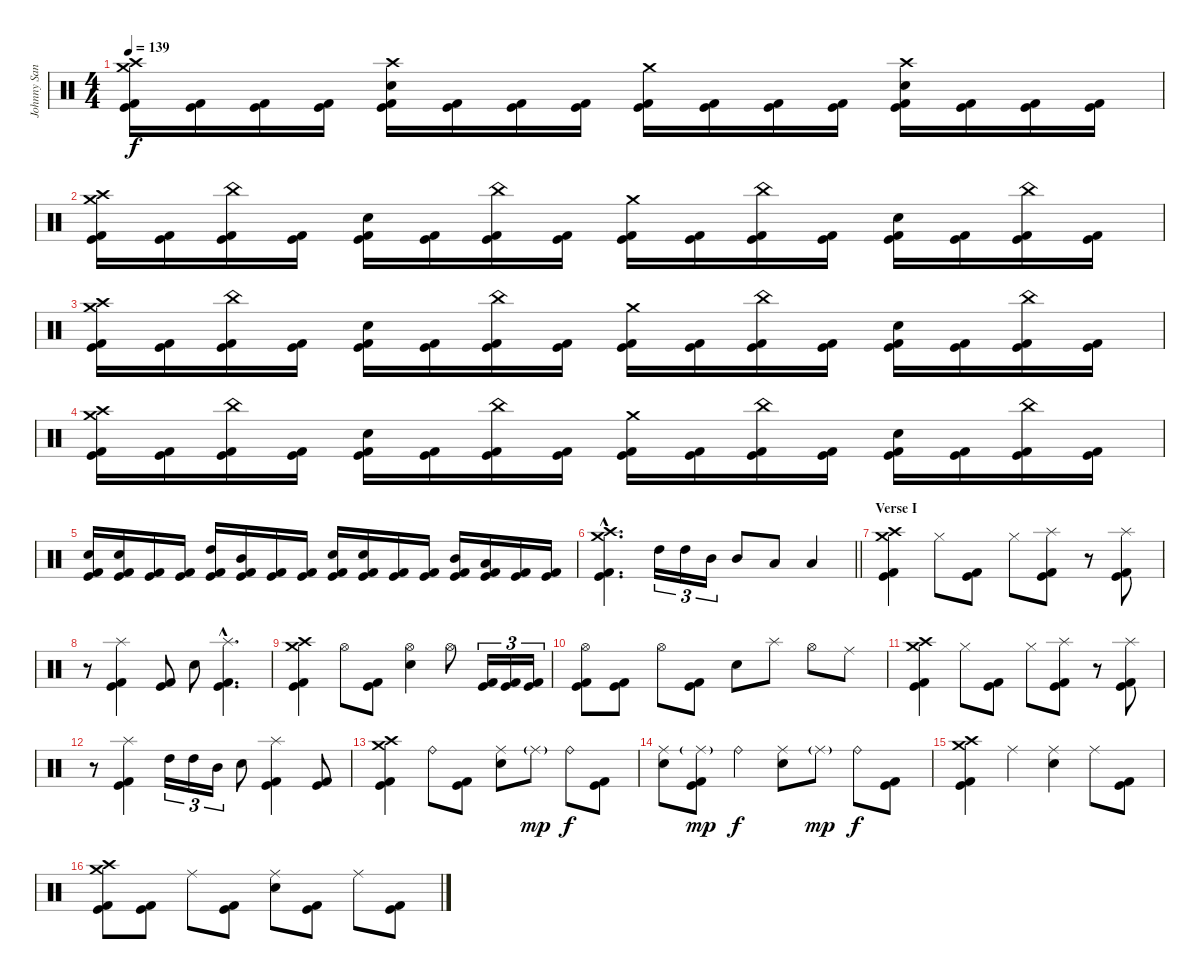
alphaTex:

\track ("Johnny Sandin" "Johnny San") {instrument percussion}
\staff {score}
\articulation defaults
\ts (4 4)
\tempo 139
\clef neutral
\ks c
("Crash medium (hit)" "Crash high (hit)" "Kick (hit) 2" "Kick (hit)").16{dy f} ("Kick (hit) 2" "Kick (hit)").16 ("Kick (hit) 2" "Kick (hit)").16 ("Kick (hit) 2" "Kick (hit)").16 ("Crash high (hit)" "Snare (hit) 2" "Kick (hit) 2" "Kick (hit)").16 ("Kick (hit) 2" "Kick (hit)").16 ("Kick (hit) 2" "Kick (hit)").16 ("Kick (hit) 2" "Kick (hit)").16 ("Crash medium (hit)" "Kick (hit) 2" "Kick (hit)").16 ("Kick (hit) 2" "Kick (hit)").16 ("Kick (hit) 2" "Kick (hit)").16 ("Kick (hit) 2" "Kick (hit)").16 ("Crash high (hit)" "Snare (hit) 2" "Kick (hit) 2" "Kick (hit)").16 ("Kick (hit) 2" "Kick (hit)").16 ("Kick (hit) 2" "Kick (hit)").16 ("Kick (hit) 2" "Kick (hit)").16 |
("Crash medium (hit)" "Crash high (hit)" "Kick (hit) 2" "Kick (hit)").16 ("Kick (hit) 2" "Kick (hit)").16 ("China (hit)" "Kick (hit) 2" "Kick (hit)").16 ("Kick (hit) 2" "Kick (hit)").16 ("Snare (hit) 2" "Kick (hit) 2" "Kick (hit)").16 ("Kick (hit) 2" "Kick (hit)").16 ("China (hit)" "Kick (hit) 2" "Kick (hit)").16 ("Kick (hit) 2" "Kick (hit)").16 ("Crash medium (hit)" "Kick (hit) 2" "Kick (hit)").16 ("Kick (hit) 2" "Kick (hit)").16 ("China (hit)" "Kick (hit) 2" "Kick (hit)").16 ("Kick (hit) 2" "Kick (hit)").16 ("Snare (hit) 2" "Kick (hit) 2" "Kick (hit)").16 ("Kick (hit) 2" "Kick (hit)").16 ("China (hit)" "Kick (hit) 2" "Kick (hit)").16 ("Kick (hit) 2" "Kick (hit)").16 |
("Crash medium (hit)" "Crash high (hit)" "Kick (hit) 2" "Kick (hit)").16 ("Kick (hit) 2" "Kick (hit)").16 ("China (hit)" "Kick (hit) 2" "Kick (hit)").16 ("Kick (hit) 2" "Kick (hit)").16 ("Snare (hit) 2" "Kick (hit) 2" "Kick (hit)").16 ("Kick (hit) 2" "Kick (hit)").16 ("China (hit)" "Kick (hit) 2" "Kick (hit)").16 ("Kick (hit) 2" "Kick (hit)").16 ("Crash medium (hit)" "Kick (hit) 2" "Kick (hit)").16 ("Kick (hit) 2" "Kick (hit)").16 ("China (hit)" "Kick (hit) 2" "Kick (hit)").16 ("Kick (hit) 2" "Kick (hit)").16 ("Snare (hit) 2" "Kick (hit) 2" "Kick (hit)").16 ("Kick (hit) 2" "Kick (hit)").16 ("China (hit)" "Kick (hit) 2" "Kick (hit)").16 ("Kick (hit) 2" "Kick (hit)").16 |
("Crash medium (hit)" "Crash high (hit)" "Kick (hit) 2" "Kick (hit)").16 ("Kick (hit) 2" "Kick (hit)").16 ("China (hit)" "Kick (hit) 2" "Kick (hit)").16 ("Kick (hit) 2" "Kick (hit)").16 ("Snare (hit) 2" "Kick (hit) 2" "Kick (hit)").16 ("Kick (hit) 2" "Kick (hit)").16 ("China (hit)" "Kick (hit) 2" "Kick (hit)").16 ("Kick (hit) 2" "Kick (hit)").16 ("Crash medium (hit)" "Kick (hit) 2" "Kick (hit)").16 ("Kick (hit) 2" "Kick (hit)").16 ("China (hit)" "Kick (hit) 2" "Kick (hit)").16 ("Kick (hit) 2" "Kick (hit)").16 ("Snare (hit) 2" "Kick (hit) 2" "Kick (hit)").16 ("Kick (hit) 2" "Kick (hit)").16 ("China (hit)" "Kick (hit) 2" "Kick (hit)").16 ("Kick (hit) 2" "Kick (hit)").16 |
("Snare (hit) 2" "Kick (hit) 2" "Kick (hit)").16 ("Snare (hit) 2" "Kick (hit) 2" "Kick (hit)").16 ("Kick (hit) 2" "Kick (hit)").16 ("Kick (hit) 2" "Kick (hit)").16 ("High Tom (hit)" "Kick (hit) 2" "Kick (hit)").16 ("Mid Tom (hit)" "Kick (hit) 2" "Kick (hit)").16 ("Kick (hit) 2" "Kick (hit)").16 ("Kick (hit) 2" "Kick (hit)").16 ("Snare (hit) 2" "Kick (hit) 2" "Kick (hit)").16 ("Snare (hit) 2" "Kick (hit) 2" "Kick (hit)").16 ("Kick (hit) 2" "Kick (hit)").16 ("Kick (hit) 2" "Kick (hit)").16 ("Mid Tom (hit)" "Kick (hit) 2" "Kick (hit)").16 ("Low Tom (hit)" "Kick (hit) 2" "Kick (hit)").16 ("Kick (hit) 2" "Kick (hit)").16 ("Kick (hit) 2" "Kick (hit)").16 |
\barLineRight lightlight
("Crash medium (hit)"{hac} "Crash high (hit)"{hac} "Kick (hit) 2"{hac} "Kick (hit)"{hac}).4{d} "High Tom (hit)".16{tu (3 2)} "High Tom (hit)".16{tu (3 2)} "Mid Tom (hit)".16{tu (3 2)} "Mid Tom (hit)".8 "Low Tom (hit)".8 "Low Tom (hit)".4 |
\section ("" "Verse I")
("Crash medium (hit)" "Crash high (hit)" "Kick (hit) 2" "Kick (hit)").4 "Hi-Hat (closed)".8 ("Kick (hit) 2" "Kick (hit)").8 "Hi-Hat (closed)".8 ("Splash (hit)" "Kick (hit) 2" "Kick (hit)").8 r.8 ("Splash (hit)" "Kick (hit) 2" "Kick (hit)").8 |
r.8 ("Splash (hit)" "Kick (hit) 2" "Kick (hit)").4 ("Kick (hit) 2" "Kick (hit)").8 "Snare (hit) 2".8 ("Splash (hit)"{hac} "Kick (hit) 2"{hac} "Kick (hit)"{hac}).4{d} |
("Crash medium (hit)" "Crash high (hit)" "Kick (hit) 2" "Kick (hit)").4 "Hi-Hat (open)".8 ("Kick (hit) 2" "Kick (hit)").8 ("Hi-Hat (open)" "Snare (hit) 2").4 "Hi-Hat (open)".8 ("Kick (hit) 2" "Kick (hit)").16{tu (3 2)} ("Kick (hit) 2" "Kick (hit)").16{tu (3 2)} ("Kick (hit) 2" "Kick (hit)").16{tu (3 2)} |
("Hi-Hat (open)" "Kick (hit) 2" "Kick (hit)").8 ("Kick (hit) 2" "Kick (hit)").8 "Hi-Hat (open)".8 ("Kick (hit) 2" "Kick (hit)").8 "Snare (hit) 2".8 "Splash (hit)".8 "Hi-Hat (open)".8 "Ride (middle)".8 |
("Crash medium (hit)" "Crash high (hit)" "Kick (hit) 2" "Kick (hit)").4 "Hi-Hat (closed)".8 ("Kick (hit) 2" "Kick (hit)").8 "Hi-Hat (closed)".8 ("Splash (hit)" "Kick (hit) 2" "Kick (hit)").8 r.8 ("Splash (hit)" "Kick (hit) 2" "Kick (hit)").8 |
r.8 ("Splash (hit)" "Kick (hit) 2" "Kick (hit)").4 "High Tom (hit)".16{tu (3 2)} "High Tom (hit)".16{tu (3 2)} "Mid Tom (hit)".16{tu (3 2)} "Snare (hit) 2".8 ("Splash (hit)" "Kick (hit) 2" "Kick (hit)").4 ("Kick (hit)" "Kick (hit) 2").8 |
("Crash medium (hit)" "Crash high (hit)" "Kick (hit) 2" "Kick (hit)").4 "Ride (bell)".8 ("Kick (hit) 2" "Kick (hit)").8 ("Ride (middle)" "Snare (hit) 2").8 "Ride (middle)"{g}.8{dy mp} "Ride (bell)".8{dy f} ("Kick (hit) 2" "Kick (hit)").8 |
("Ride (middle)" "Snare (hit) 2").8 ("Ride (middle)"{g} "Kick (hit) 2" "Kick (hit)").8{dy mp} "Ride (bell)".4{dy f} ("Ride (middle)" "Snare (hit) 2").8 "Ride (middle)"{g}.8{dy mp} "Ride (bell)".8{dy f} ("Kick (hit)" "Kick (hit) 2").8 |
("Crash medium (hit)" "Crash high (hit)" "Kick (hit)" "Kick (hit) 2").4 "Ride (middle)".4 ("Ride (middle)" "Snare (hit) 2").4 "Ride (middle)".8 ("Kick (hit) 2" "Kick (hit)").8 |
("Crash medium (hit)" "Crash high (hit)" "Kick (hit)" "Kick (hit) 2").8 ("Kick (hit)" "Kick (hit) 2").8 "Ride (middle)".8 ("Kick (hit)" "Kick (hit) 2").8 ("Ride (middle)" "Snare (hit) 2").8 ("Kick (hit) 2" "Kick (hit)").8 "Ride (middle)".8 ("Kick (hit) 2" "Kick (hit)").8
